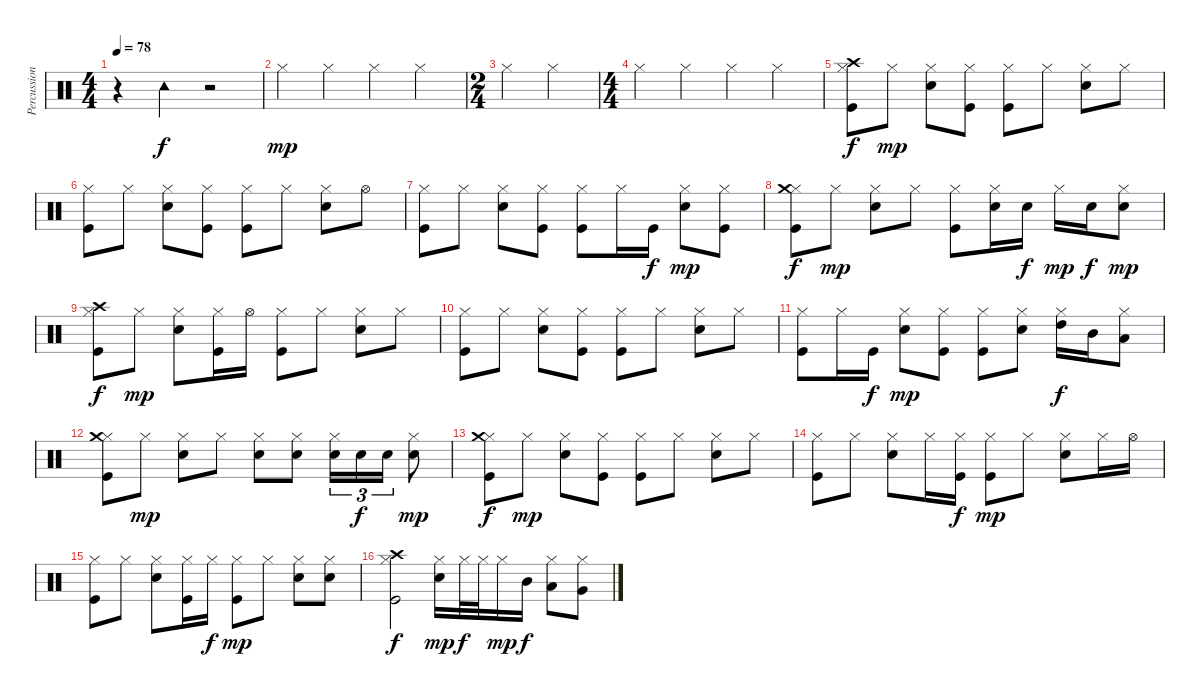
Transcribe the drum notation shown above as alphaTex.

\track ("Percussion" "Percussion") {instrument percussion}
\staff {score}
\articulation defaults
\ts (4 4)
\tempo 78
\clef neutral
\ks c
r.4{dy f} "Tambourine (hit)".4 r.2 |
"Hi-Hat (closed)".4{dy mp} "Hi-Hat (closed)".4 "Hi-Hat (closed)".4 "Hi-Hat (closed)".4 |
\ts (2 4)
"Hi-Hat (closed)".4 "Hi-Hat (closed)".4 |
\ts (4 4)
"Hi-Hat (closed)".4 "Hi-Hat (closed)".4 "Hi-Hat (closed)".4 "Hi-Hat (closed)".4 |
("Kick (hit)" "Hi-Hat (closed)" "Crash high (hit)").8{dy f} "Hi-Hat (closed)".8{dy mp} ("Electric Snare (hit)" "Hi-Hat (closed)").8 ("Kick (hit)" "Hi-Hat (closed)").8 ("Kick (hit)" "Hi-Hat (closed)").8 "Hi-Hat (closed)".8 ("Electric Snare (hit)" "Hi-Hat (closed)").8 "Hi-Hat (closed)".8 |
("Kick (hit)" "Hi-Hat (closed)").8 "Hi-Hat (closed)".8 ("Electric Snare (hit)" "Hi-Hat (closed)").8 ("Kick (hit)" "Hi-Hat (closed)").8 ("Kick (hit)" "Hi-Hat (closed)").8 "Hi-Hat (closed)".8 ("Electric Snare (hit)" "Hi-Hat (closed)").8 "Hi-Hat (open)".8 |
("Kick (hit)" "Hi-Hat (closed)").8 "Hi-Hat (closed)".8 ("Electric Snare (hit)" "Hi-Hat (closed)").8 ("Kick (hit)" "Hi-Hat (closed)").8 ("Kick (hit)" "Hi-Hat (closed)").8 "Hi-Hat (closed)".16 "Kick (hit)".16{dy f} ("Electric Snare (hit)" "Hi-Hat (closed)").8{dy mp} ("Kick (hit)" "Hi-Hat (closed)").8 |
("Kick (hit)" "Hi-Hat (closed)" "Crash medium (hit)").8{dy f} "Hi-Hat (closed)".8{dy mp} ("Electric Snare (hit)" "Hi-Hat (closed)").8 "Hi-Hat (closed)".8 ("Kick (hit)" "Hi-Hat (closed)").8 ("Electric Snare (hit)" "Hi-Hat (closed)").16 "Electric Snare (hit)".16{dy f} "Hi-Hat (closed)".16{dy mp} "Electric Snare (hit)".16{dy f} ("Electric Snare (hit)" "Hi-Hat (closed)").8{dy mp} |
("Kick (hit)" "Hi-Hat (closed)" "Crash high (hit)").8{dy f} "Hi-Hat (closed)".8{dy mp} ("Electric Snare (hit)" "Hi-Hat (closed)").8 ("Kick (hit)" "Hi-Hat (closed)").16 "Hi-Hat (open)".16 ("Kick (hit)" "Hi-Hat (closed)").8 "Hi-Hat (closed)".8 ("Electric Snare (hit)" "Hi-Hat (closed)").8 "Hi-Hat (closed)".8 |
("Kick (hit)" "Hi-Hat (closed)").8 "Hi-Hat (closed)".8 ("Electric Snare (hit)" "Hi-Hat (closed)").8 ("Kick (hit)" "Hi-Hat (closed)").8 ("Kick (hit)" "Hi-Hat (closed)").8 "Hi-Hat (closed)".8 ("Electric Snare (hit)" "Hi-Hat (closed)").8 "Hi-Hat (closed)".8 |
("Kick (hit)" "Hi-Hat (closed)").8 "Hi-Hat (closed)".16 "Kick (hit)".16{dy f} ("Electric Snare (hit)" "Hi-Hat (closed)").8{dy mp} ("Kick (hit)" "Hi-Hat (closed)").8 ("Kick (hit)" "Hi-Hat (closed)").8 ("Electric Snare (hit)" "Hi-Hat (closed)").8 ("High Tom (hit)" "Hi-Hat (closed)").16{dy f} "Mid Tom (hit)".16 ("Low Tom (hit)" "Hi-Hat (closed)").8 |
("Kick (hit)" "Hi-Hat (closed)" "Crash medium (hit)").8 "Hi-Hat (closed)".8{dy mp} ("Electric Snare (hit)" "Hi-Hat (closed)").8 "Hi-Hat (closed)".8 ("Electric Snare (hit)" "Hi-Hat (closed)").8 ("Electric Snare (hit)" "Hi-Hat (closed)").8 ("Electric Snare (hit)" "Hi-Hat (closed)").16{tu (3 2)} "Electric Snare (hit)".16{tu (3 2) dy f} "Electric Snare (hit)".16{tu (3 2)} ("Electric Snare (hit)" "Hi-Hat (closed)").8{dy mp} |
("Kick (hit)" "Hi-Hat (closed)" "Crash medium (hit)").8{dy f} "Hi-Hat (closed)".8{dy mp} ("Electric Snare (hit)" "Hi-Hat (closed)").8 ("Kick (hit)" "Hi-Hat (closed)").8 ("Kick (hit)" "Hi-Hat (closed)").8 "Hi-Hat (closed)".8 ("Electric Snare (hit)" "Hi-Hat (closed)").8 "Hi-Hat (closed)".8 |
("Kick (hit)" "Hi-Hat (closed)").8 "Hi-Hat (closed)".8 ("Electric Snare (hit)" "Hi-Hat (closed)").8 "Hi-Hat (closed)".16 ("Kick (hit)" "Hi-Hat (closed)").16{dy f} ("Kick (hit)" "Hi-Hat (closed)").8{dy mp} "Hi-Hat (closed)".8 ("Electric Snare (hit)" "Hi-Hat (closed)").8 "Hi-Hat (closed)".16 "Hi-Hat (open)".16 |
("Kick (hit)" "Hi-Hat (closed)").8 "Hi-Hat (closed)".8 ("Electric Snare (hit)" "Hi-Hat (closed)").8 ("Kick (hit)" "Hi-Hat (closed)").16 "Hi-Hat (closed)".16{dy f} ("Kick (hit)" "Hi-Hat (closed)").8{dy mp} "Hi-Hat (closed)".8 ("Electric Snare (hit)" "Hi-Hat (closed)").8 ("Electric Snare (hit)" "Hi-Hat (closed)").8 |
("Kick (hit)" "Hi-Hat (closed)" "Crash high (hit)").2{dy f} ("Electric Snare (hit)" "Hi-Hat (closed)").16{dy mp} "Hi-Hat (closed)".32{dy f} "Hi-Hat (closed)".32 "Hi-Hat (closed)".16{dy mp} "Mid Tom (hit)".16{dy f} ("Low Tom (hit)" "Hi-Hat (closed)").8 ("Very Low Tom (hit)" "Hi-Hat (closed)").8
